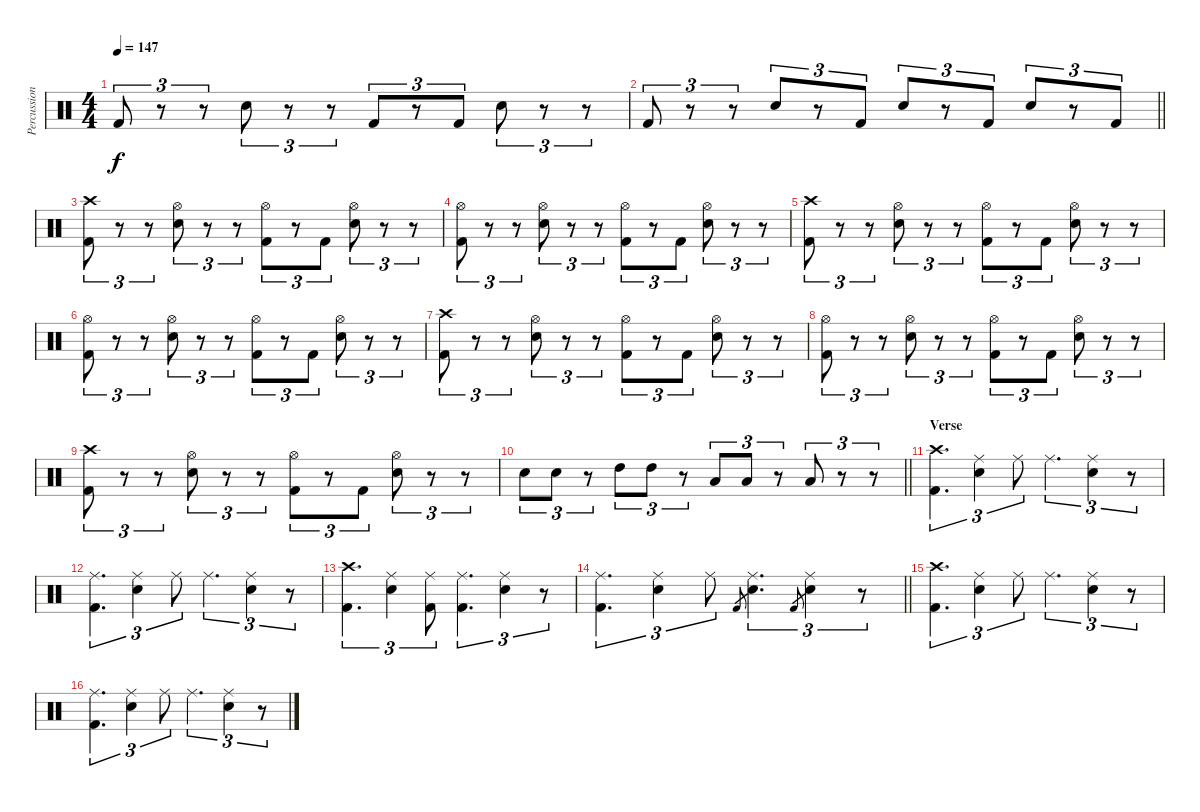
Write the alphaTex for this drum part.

\track ("Percussion" "Percussion") {instrument percussion}
\staff {score}
\articulation defaults
\ts (4 4)
\tempo 147
\clef neutral
\ks c "Kick (hit) 2".8{tu (3 2) dy f}
r.8{tu (3 2)} r.8{tu (3 2)} "Electric Snare (hit)".8{tu (3 2)} r.8{tu (3 2)} r.8{tu (3 2)} "Kick (hit) 2".8{tu (3 2)} r.8{tu (3 2)} "Kick (hit) 2".8{tu (3 2)} "Electric Snare (hit)".8{tu (3 2)} r.8{tu (3 2)} r.8{tu (3 2)} |
\barLineRight lightlight "Kick (hit) 2".8{tu (3 2)}
r.8{tu (3 2)} r.8{tu (3 2)} "Electric Snare (hit)".8{tu (3 2)} r.8{tu (3 2)} "Kick (hit) 2".8{tu (3 2)} "Electric Snare (hit)".8{tu (3 2)} r.8{tu (3 2)} "Kick (hit) 2".8{tu (3 2)} "Electric Snare (hit)".8{tu (3 2)} r.8{tu (3 2)} "Kick (hit) 2".8{tu (3 2)} |
("Crash high (hit)" "Kick (hit) 2").8{tu (3 2)} r.8{tu (3 2)} r.8{tu (3 2)} ("Hi-Hat (open)" "Electric Snare (hit)").8{tu (3 2)} r.8{tu (3 2)} r.8{tu (3 2)} ("Hi-Hat (open)" "Kick (hit) 2").8{tu (3 2)} r.8{tu (3 2)} "Kick (hit) 2".8{tu (3 2)} ("Hi-Hat (open)" "Electric Snare (hit)").8{tu (3 2)} r.8{tu (3 2)} r.8{tu (3 2)} |
("Hi-Hat (open)" "Kick (hit) 2").8{tu (3 2)} r.8{tu (3 2)} r.8{tu (3 2)} ("Hi-Hat (open)" "Electric Snare (hit)").8{tu (3 2)} r.8{tu (3 2)} r.8{tu (3 2)} ("Hi-Hat (open)" "Kick (hit) 2").8{tu (3 2)} r.8{tu (3 2)} "Kick (hit) 2".8{tu (3 2)} ("Hi-Hat (open)" "Electric Snare (hit)").8{tu (3 2)} r.8{tu (3 2)} r.8{tu (3 2)} |
("Crash high (hit)" "Kick (hit) 2").8{tu (3 2)} r.8{tu (3 2)} r.8{tu (3 2)} ("Hi-Hat (open)" "Electric Snare (hit)").8{tu (3 2)} r.8{tu (3 2)} r.8{tu (3 2)} ("Hi-Hat (open)" "Kick (hit) 2").8{tu (3 2)} r.8{tu (3 2)} "Kick (hit) 2".8{tu (3 2)} ("Hi-Hat (open)" "Electric Snare (hit)").8{tu (3 2)} r.8{tu (3 2)} r.8{tu (3 2)} |
("Hi-Hat (open)" "Kick (hit) 2").8{tu (3 2)} r.8{tu (3 2)} r.8{tu (3 2)} ("Hi-Hat (open)" "Electric Snare (hit)").8{tu (3 2)} r.8{tu (3 2)} r.8{tu (3 2)} ("Hi-Hat (open)" "Kick (hit) 2").8{tu (3 2)} r.8{tu (3 2)} "Kick (hit) 2".8{tu (3 2)} ("Hi-Hat (open)" "Electric Snare (hit)").8{tu (3 2)} r.8{tu (3 2)} r.8{tu (3 2)} |
("Crash high (hit)" "Kick (hit) 2").8{tu (3 2)} r.8{tu (3 2)} r.8{tu (3 2)} ("Hi-Hat (open)" "Electric Snare (hit)").8{tu (3 2)} r.8{tu (3 2)} r.8{tu (3 2)} ("Hi-Hat (open)" "Kick (hit) 2").8{tu (3 2)} r.8{tu (3 2)} "Kick (hit) 2".8{tu (3 2)} ("Hi-Hat (open)" "Electric Snare (hit)").8{tu (3 2)} r.8{tu (3 2)} r.8{tu (3 2)} |
("Hi-Hat (open)" "Kick (hit) 2").8{tu (3 2)} r.8{tu (3 2)} r.8{tu (3 2)} ("Hi-Hat (open)" "Electric Snare (hit)").8{tu (3 2)} r.8{tu (3 2)} r.8{tu (3 2)} ("Hi-Hat (open)" "Kick (hit) 2").8{tu (3 2)} r.8{tu (3 2)} "Kick (hit) 2".8{tu (3 2)} ("Hi-Hat (open)" "Electric Snare (hit)").8{tu (3 2)} r.8{tu (3 2)} r.8{tu (3 2)} |
("Crash high (hit)" "Kick (hit) 2").8{tu (3 2)} r.8{tu (3 2)} r.8{tu (3 2)} ("Hi-Hat (open)" "Electric Snare (hit)").8{tu (3 2)} r.8{tu (3 2)} r.8{tu (3 2)} ("Hi-Hat (open)" "Kick (hit) 2").8{tu (3 2)} r.8{tu (3 2)} "Kick (hit) 2".8{tu (3 2)} ("Hi-Hat (open)" "Electric Snare (hit)").8{tu (3 2)} r.8{tu (3 2)} r.8{tu (3 2)} |
\barLineRight lightlight "Electric Snare (hit)".8{tu (3 2)} "Electric Snare (hit)".8{tu (3 2)}
r.8{tu (3 2)} "High Tom (hit)".8{tu (3 2)} "High Tom (hit)".8{tu (3 2)} r.8{tu (3 2)} "Low Tom (hit)".8{tu (3 2)} "Low Tom (hit)".8{tu (3 2)} r.8{tu (3 2)} "Low Floor Tom (hit)".8{tu (3 2)} r.8{tu (3 2)} r.8{tu (3 2)} |
\section ("" "Verse")
("Crash high (hit)" "Kick (hit) 2").4{d tu (3 2)} ("Ride (middle)" "Electric Snare (hit)").4{tu (3 2)} "Ride (middle)".8{tu (3 2)} "Ride (middle)".4{d tu (3 2)} ("Ride (middle)" "Electric Snare (hit)").4{tu (3 2)} r.8{tu (3 2)} |
("Ride (middle)" "Kick (hit) 2").4{d tu (3 2)} ("Ride (middle)" "Electric Snare (hit)").4{tu (3 2)} "Ride (middle)".8{tu (3 2)} "Ride (middle)".4{d tu (3 2)} ("Ride (middle)" "Electric Snare (hit)").4{tu (3 2)} r.8{tu (3 2)} |
("Crash high (hit)" "Kick (hit) 2").4{d tu (3 2)} ("Ride (middle)" "Electric Snare (hit)").4{tu (3 2)} ("Ride (middle)" "Kick (hit) 2").8{tu (3 2)} ("Ride (middle)" "Kick (hit) 2").4{d tu (3 2)} ("Ride (middle)" "Electric Snare (hit)").4{tu (3 2)} r.8{tu (3 2)} |
\barLineRight lightlight
("Ride (middle)" "Kick (hit) 2").4{d tu (3 2)} ("Ride (middle)" "Electric Snare (hit)").4{tu (3 2)} "Ride (middle)".8{tu (3 2)} "Kick (hit) 2".8{gr} ("Ride (middle)" "Electric Snare (hit)").4{d tu (3 2)} "Kick (hit) 2".8{gr} ("Ride (middle)" "Electric Snare (hit)").4{tu (3 2)} r.8{tu (3 2)} |
("Crash high (hit)" "Kick (hit) 2").4{d tu (3 2)} ("Ride (middle)" "Electric Snare (hit)").4{tu (3 2)} "Ride (middle)".8{tu (3 2)} "Ride (middle)".4{d tu (3 2)} ("Ride (middle)" "Electric Snare (hit)").4{tu (3 2)} r.8{tu (3 2)} |
("Ride (middle)" "Kick (hit) 2").4{d tu (3 2)} ("Ride (middle)" "Electric Snare (hit)").4{tu (3 2)} "Ride (middle)".8{tu (3 2)} "Ride (middle)".4{d tu (3 2)} ("Ride (middle)" "Electric Snare (hit)").4{tu (3 2)} r.8{tu (3 2)}
